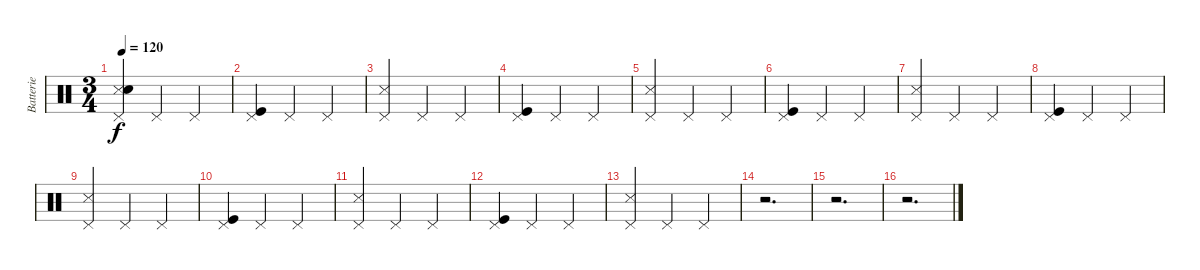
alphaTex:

\track ("Batterie" "Batterie") {instrument percussion}
\staff {score}
\articulation defaults
\ts (3 4)
\tempo 120
\clef neutral
\ks c
("Pedal Hi-Hat (hit)" "Snare (side stick) 3" "Electric Snare (hit)").4{dy f} "Pedal Hi-Hat (hit)".4 "Pedal Hi-Hat (hit)".4 |
("Pedal Hi-Hat (hit)" "Kick (hit)").4 "Pedal Hi-Hat (hit)".4 "Pedal Hi-Hat (hit)".4 |
("Pedal Hi-Hat (hit)" "Snare (side stick) 3").4 "Pedal Hi-Hat (hit)".4 "Pedal Hi-Hat (hit)".4 |
("Pedal Hi-Hat (hit)" "Kick (hit)").4 "Pedal Hi-Hat (hit)".4 "Pedal Hi-Hat (hit)".4 |
("Pedal Hi-Hat (hit)" "Snare (side stick) 3").4 "Pedal Hi-Hat (hit)".4 "Pedal Hi-Hat (hit)".4 |
("Pedal Hi-Hat (hit)" "Kick (hit)").4 "Pedal Hi-Hat (hit)".4 "Pedal Hi-Hat (hit)".4 |
("Pedal Hi-Hat (hit)" "Snare (side stick) 3").4 "Pedal Hi-Hat (hit)".4 "Pedal Hi-Hat (hit)".4 |
("Pedal Hi-Hat (hit)" "Kick (hit)").4 "Pedal Hi-Hat (hit)".4 "Pedal Hi-Hat (hit)".4 |
("Pedal Hi-Hat (hit)" "Snare (side stick) 3").4 "Pedal Hi-Hat (hit)".4 "Pedal Hi-Hat (hit)".4 |
("Pedal Hi-Hat (hit)" "Kick (hit)").4 "Pedal Hi-Hat (hit)".4 "Pedal Hi-Hat (hit)".4 |
("Pedal Hi-Hat (hit)" "Snare (side stick) 3").4 "Pedal Hi-Hat (hit)".4 "Pedal Hi-Hat (hit)".4 |
("Pedal Hi-Hat (hit)" "Kick (hit)").4 "Pedal Hi-Hat (hit)".4 "Pedal Hi-Hat (hit)".4 |
("Pedal Hi-Hat (hit)" "Snare (side stick) 3").4 "Pedal Hi-Hat (hit)".4 "Pedal Hi-Hat (hit)".4 |
r.2{d} |
r.2{d} |
r.2{d}
